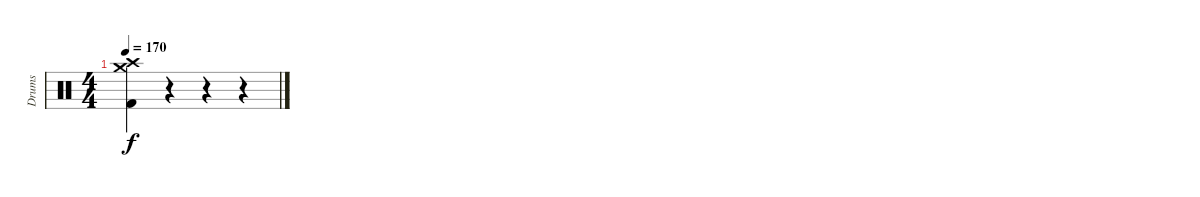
\track ("Drums" "Drums") {instrument percussion}
\staff {score}
\articulation defaults
\ts (4 4)
\tempo 170
\clef neutral
\ks c
("Crash high (hit)" "Crash medium (hit)" "Kick (hit) 2").4{dy f} r.4 r.4 r.4
